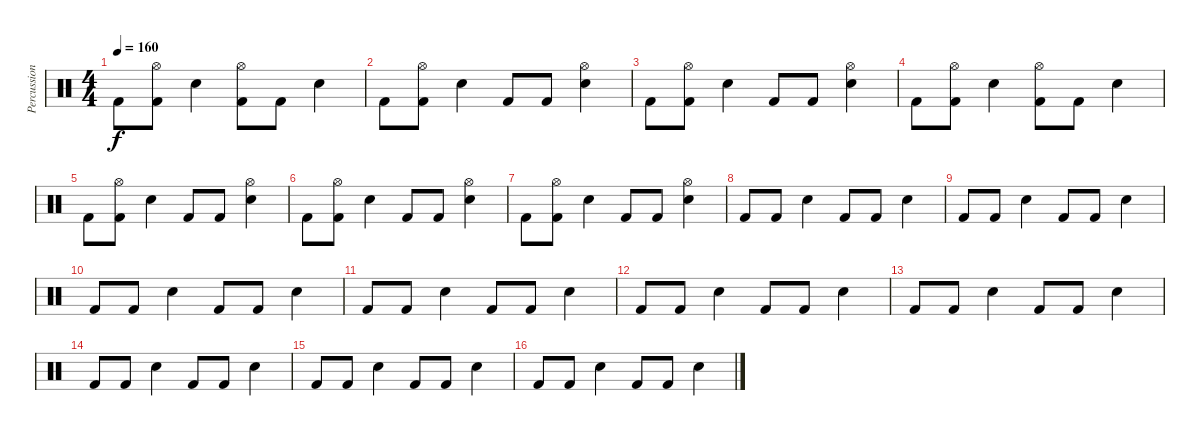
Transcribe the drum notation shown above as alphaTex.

\track ("Percussion" "Percussion") {instrument percussion}
\staff {score}
\articulation defaults
\ts (4 4)
\tempo 160
\clef neutral
\ks c "Kick (hit) 2".8{dy f}
("Hi-Hat (open)" "Kick (hit) 2").8 "Snare (hit) 2".4 ("Hi-Hat (open)" "Kick (hit) 2").8 "Kick (hit) 2".8 "Snare (hit) 2".4 |
"Kick (hit) 2".8 ("Hi-Hat (open)" "Kick (hit) 2").8 "Snare (hit) 2".4 "Kick (hit) 2".8 "Kick (hit) 2".8 ("Hi-Hat (open)" "Snare (hit) 2").4 |
"Kick (hit) 2".8 ("Hi-Hat (open)" "Kick (hit) 2").8 "Snare (hit) 2".4 "Kick (hit) 2".8 "Kick (hit) 2".8 ("Hi-Hat (open)" "Snare (hit) 2").4 |
"Kick (hit) 2".8 ("Hi-Hat (open)" "Kick (hit) 2").8 "Snare (hit) 2".4 ("Hi-Hat (open)" "Kick (hit) 2").8 "Kick (hit) 2".8 "Snare (hit) 2".4 |
"Kick (hit) 2".8 ("Hi-Hat (open)" "Kick (hit) 2").8 "Snare (hit) 2".4 "Kick (hit) 2".8 "Kick (hit) 2".8 ("Hi-Hat (open)" "Snare (hit) 2").4 |
"Kick (hit) 2".8 ("Hi-Hat (open)" "Kick (hit) 2").8 "Snare (hit) 2".4 "Kick (hit) 2".8 "Kick (hit) 2".8 ("Hi-Hat (open)" "Snare (hit) 2").4 |
"Kick (hit) 2".8 ("Hi-Hat (open)" "Kick (hit) 2").8 "Snare (hit) 2".4 "Kick (hit) 2".8 "Kick (hit) 2".8 ("Hi-Hat (open)" "Snare (hit) 2").4 |
"Kick (hit) 2".8 "Kick (hit) 2".8 "Snare (hit) 2".4 "Kick (hit) 2".8 "Kick (hit) 2".8 "Snare (hit) 2".4 |
"Kick (hit) 2".8 "Kick (hit) 2".8 "Snare (hit) 2".4 "Kick (hit) 2".8 "Kick (hit) 2".8 "Snare (hit) 2".4 |
"Kick (hit) 2".8 "Kick (hit) 2".8 "Snare (hit) 2".4 "Kick (hit) 2".8 "Kick (hit) 2".8 "Snare (hit) 2".4 |
"Kick (hit) 2".8 "Kick (hit) 2".8 "Snare (hit) 2".4 "Kick (hit) 2".8 "Kick (hit) 2".8 "Snare (hit) 2".4 |
"Kick (hit) 2".8 "Kick (hit) 2".8 "Snare (hit) 2".4 "Kick (hit) 2".8 "Kick (hit) 2".8 "Snare (hit) 2".4 |
"Kick (hit) 2".8 "Kick (hit) 2".8 "Snare (hit) 2".4 "Kick (hit) 2".8 "Kick (hit) 2".8 "Snare (hit) 2".4 |
"Kick (hit) 2".8 "Kick (hit) 2".8 "Snare (hit) 2".4 "Kick (hit) 2".8 "Kick (hit) 2".8 "Snare (hit) 2".4 |
"Kick (hit) 2".8 "Kick (hit) 2".8 "Snare (hit) 2".4 "Kick (hit) 2".8 "Kick (hit) 2".8 "Snare (hit) 2".4 |
"Kick (hit) 2".8 "Kick (hit) 2".8 "Snare (hit) 2".4 "Kick (hit) 2".8 "Kick (hit) 2".8 "Snare (hit) 2".4
